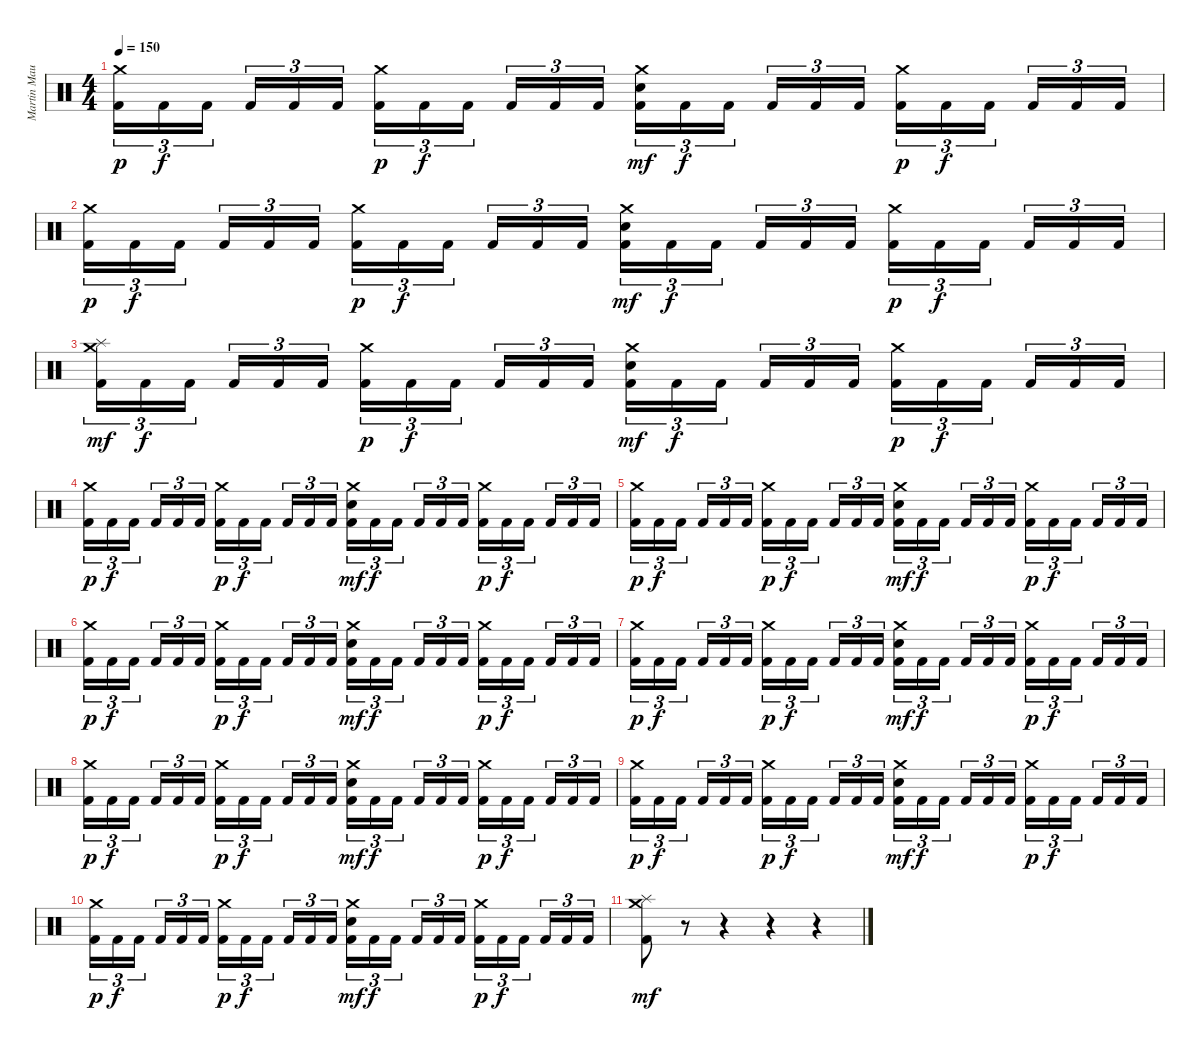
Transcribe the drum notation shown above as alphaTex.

\track ("Martin Maurais" "Martin Mau") {instrument percussion}
\staff {score}
\articulation defaults
\ts (4 4)
\tempo 150
\clef neutral
\ks c
("Crash medium (hit)" "Kick (hit) 2").16{tu (3 2) dy p} "Kick (hit) 2".16{tu (3 2) dy f} "Kick (hit) 2".16{tu (3 2) beam splitsecondary} "Kick (hit) 2".16{tu (3 2)} "Kick (hit) 2".16{tu (3 2)} "Kick (hit) 2".16{tu (3 2)} ("Crash medium (hit)" "Kick (hit) 2").16{tu (3 2) dy p} "Kick (hit) 2".16{tu (3 2) dy f} "Kick (hit) 2".16{tu (3 2) beam splitsecondary} "Kick (hit) 2".16{tu (3 2)} "Kick (hit) 2".16{tu (3 2)} "Kick (hit) 2".16{tu (3 2)} ("Crash medium (hit)" "Electric Snare (hit)" "Kick (hit) 2").16{tu (3 2) dy mf} "Kick (hit) 2".16{tu (3 2) dy f} "Kick (hit) 2".16{tu (3 2) beam splitsecondary} "Kick (hit) 2".16{tu (3 2)} "Kick (hit) 2".16{tu (3 2)} "Kick (hit) 2".16{tu (3 2)} ("Crash medium (hit)" "Kick (hit) 2").16{tu (3 2) dy p} "Kick (hit) 2".16{tu (3 2) dy f} "Kick (hit) 2".16{tu (3 2) beam splitsecondary} "Kick (hit) 2".16{tu (3 2)} "Kick (hit) 2".16{tu (3 2)} "Kick (hit) 2".16{tu (3 2)} |
("Crash medium (hit)" "Kick (hit) 2").16{tu (3 2) dy p} "Kick (hit) 2".16{tu (3 2) dy f} "Kick (hit) 2".16{tu (3 2) beam splitsecondary} "Kick (hit) 2".16{tu (3 2)} "Kick (hit) 2".16{tu (3 2)} "Kick (hit) 2".16{tu (3 2)} ("Crash medium (hit)" "Kick (hit) 2").16{tu (3 2) dy p} "Kick (hit) 2".16{tu (3 2) dy f} "Kick (hit) 2".16{tu (3 2) beam splitsecondary} "Kick (hit) 2".16{tu (3 2)} "Kick (hit) 2".16{tu (3 2)} "Kick (hit) 2".16{tu (3 2)} ("Crash medium (hit)" "Electric Snare (hit)" "Kick (hit) 2").16{tu (3 2) dy mf} "Kick (hit) 2".16{tu (3 2) dy f} "Kick (hit) 2".16{tu (3 2) beam splitsecondary} "Kick (hit) 2".16{tu (3 2)} "Kick (hit) 2".16{tu (3 2)} "Kick (hit) 2".16{tu (3 2)} ("Crash medium (hit)" "Kick (hit) 2").16{tu (3 2) dy p} "Kick (hit) 2".16{tu (3 2) dy f} "Kick (hit) 2".16{tu (3 2) beam splitsecondary} "Kick (hit) 2".16{tu (3 2)} "Kick (hit) 2".16{tu (3 2)} "Kick (hit) 2".16{tu (3 2)} |
("Crash medium (hit)" "Splash (hit)" "Kick (hit) 2").16{tu (3 2) dy mf} "Kick (hit) 2".16{tu (3 2) dy f} "Kick (hit) 2".16{tu (3 2) beam splitsecondary} "Kick (hit) 2".16{tu (3 2)} "Kick (hit) 2".16{tu (3 2)} "Kick (hit) 2".16{tu (3 2)} ("Crash medium (hit)" "Kick (hit) 2").16{tu (3 2) dy p} "Kick (hit) 2".16{tu (3 2) dy f} "Kick (hit) 2".16{tu (3 2) beam splitsecondary} "Kick (hit) 2".16{tu (3 2)} "Kick (hit) 2".16{tu (3 2)} "Kick (hit) 2".16{tu (3 2)} ("Crash medium (hit)" "Electric Snare (hit)" "Kick (hit) 2").16{tu (3 2) dy mf} "Kick (hit) 2".16{tu (3 2) dy f} "Kick (hit) 2".16{tu (3 2) beam splitsecondary} "Kick (hit) 2".16{tu (3 2)} "Kick (hit) 2".16{tu (3 2)} "Kick (hit) 2".16{tu (3 2)} ("Crash medium (hit)" "Kick (hit) 2").16{tu (3 2) dy p} "Kick (hit) 2".16{tu (3 2) dy f} "Kick (hit) 2".16{tu (3 2) beam splitsecondary} "Kick (hit) 2".16{tu (3 2)} "Kick (hit) 2".16{tu (3 2)} "Kick (hit) 2".16{tu (3 2)} |
("Crash medium (hit)" "Kick (hit) 2").16{tu (3 2) dy p} "Kick (hit) 2".16{tu (3 2) dy f} "Kick (hit) 2".16{tu (3 2) beam splitsecondary} "Kick (hit) 2".16{tu (3 2)} "Kick (hit) 2".16{tu (3 2)} "Kick (hit) 2".16{tu (3 2)} ("Crash medium (hit)" "Kick (hit) 2").16{tu (3 2) dy p} "Kick (hit) 2".16{tu (3 2) dy f} "Kick (hit) 2".16{tu (3 2) beam splitsecondary} "Kick (hit) 2".16{tu (3 2)} "Kick (hit) 2".16{tu (3 2)} "Kick (hit) 2".16{tu (3 2)} ("Crash medium (hit)" "Electric Snare (hit)" "Kick (hit) 2").16{tu (3 2) dy mf} "Kick (hit) 2".16{tu (3 2) dy f} "Kick (hit) 2".16{tu (3 2) beam splitsecondary} "Kick (hit) 2".16{tu (3 2)} "Kick (hit) 2".16{tu (3 2)} "Kick (hit) 2".16{tu (3 2)} ("Crash medium (hit)" "Kick (hit) 2").16{tu (3 2) dy p} "Kick (hit) 2".16{tu (3 2) dy f} "Kick (hit) 2".16{tu (3 2) beam splitsecondary} "Kick (hit) 2".16{tu (3 2)} "Kick (hit) 2".16{tu (3 2)} "Kick (hit) 2".16{tu (3 2)} |
("Crash medium (hit)" "Kick (hit) 2").16{tu (3 2) dy p} "Kick (hit) 2".16{tu (3 2) dy f} "Kick (hit) 2".16{tu (3 2) beam splitsecondary} "Kick (hit) 2".16{tu (3 2)} "Kick (hit) 2".16{tu (3 2)} "Kick (hit) 2".16{tu (3 2)} ("Crash medium (hit)" "Kick (hit) 2").16{tu (3 2) dy p} "Kick (hit) 2".16{tu (3 2) dy f} "Kick (hit) 2".16{tu (3 2) beam splitsecondary} "Kick (hit) 2".16{tu (3 2)} "Kick (hit) 2".16{tu (3 2)} "Kick (hit) 2".16{tu (3 2)} ("Crash medium (hit)" "Electric Snare (hit)" "Kick (hit) 2").16{tu (3 2) dy mf} "Kick (hit) 2".16{tu (3 2) dy f} "Kick (hit) 2".16{tu (3 2) beam splitsecondary} "Kick (hit) 2".16{tu (3 2)} "Kick (hit) 2".16{tu (3 2)} "Kick (hit) 2".16{tu (3 2)} ("Crash medium (hit)" "Kick (hit) 2").16{tu (3 2) dy p} "Kick (hit) 2".16{tu (3 2) dy f} "Kick (hit) 2".16{tu (3 2) beam splitsecondary} "Kick (hit) 2".16{tu (3 2)} "Kick (hit) 2".16{tu (3 2)} "Kick (hit) 2".16{tu (3 2)} |
("Crash medium (hit)" "Kick (hit) 2").16{tu (3 2) dy p} "Kick (hit) 2".16{tu (3 2) dy f} "Kick (hit) 2".16{tu (3 2) beam splitsecondary} "Kick (hit) 2".16{tu (3 2)} "Kick (hit) 2".16{tu (3 2)} "Kick (hit) 2".16{tu (3 2)} ("Crash medium (hit)" "Kick (hit) 2").16{tu (3 2) dy p} "Kick (hit) 2".16{tu (3 2) dy f} "Kick (hit) 2".16{tu (3 2) beam splitsecondary} "Kick (hit) 2".16{tu (3 2)} "Kick (hit) 2".16{tu (3 2)} "Kick (hit) 2".16{tu (3 2)} ("Crash medium (hit)" "Electric Snare (hit)" "Kick (hit) 2").16{tu (3 2) dy mf} "Kick (hit) 2".16{tu (3 2) dy f} "Kick (hit) 2".16{tu (3 2) beam splitsecondary} "Kick (hit) 2".16{tu (3 2)} "Kick (hit) 2".16{tu (3 2)} "Kick (hit) 2".16{tu (3 2)} ("Crash medium (hit)" "Kick (hit) 2").16{tu (3 2) dy p} "Kick (hit) 2".16{tu (3 2) dy f} "Kick (hit) 2".16{tu (3 2) beam splitsecondary} "Kick (hit) 2".16{tu (3 2)} "Kick (hit) 2".16{tu (3 2)} "Kick (hit) 2".16{tu (3 2)} |
("Crash medium (hit)" "Kick (hit) 2").16{tu (3 2) dy p} "Kick (hit) 2".16{tu (3 2) dy f} "Kick (hit) 2".16{tu (3 2) beam splitsecondary} "Kick (hit) 2".16{tu (3 2)} "Kick (hit) 2".16{tu (3 2)} "Kick (hit) 2".16{tu (3 2)} ("Crash medium (hit)" "Kick (hit) 2").16{tu (3 2) dy p} "Kick (hit) 2".16{tu (3 2) dy f} "Kick (hit) 2".16{tu (3 2) beam splitsecondary} "Kick (hit) 2".16{tu (3 2)} "Kick (hit) 2".16{tu (3 2)} "Kick (hit) 2".16{tu (3 2)} ("Crash medium (hit)" "Electric Snare (hit)" "Kick (hit) 2").16{tu (3 2) dy mf} "Kick (hit) 2".16{tu (3 2) dy f} "Kick (hit) 2".16{tu (3 2) beam splitsecondary} "Kick (hit) 2".16{tu (3 2)} "Kick (hit) 2".16{tu (3 2)} "Kick (hit) 2".16{tu (3 2)} ("Crash medium (hit)" "Kick (hit) 2").16{tu (3 2) dy p} "Kick (hit) 2".16{tu (3 2) dy f} "Kick (hit) 2".16{tu (3 2) beam splitsecondary} "Kick (hit) 2".16{tu (3 2)} "Kick (hit) 2".16{tu (3 2)} "Kick (hit) 2".16{tu (3 2)} |
("Crash medium (hit)" "Kick (hit) 2").16{tu (3 2) dy p} "Kick (hit) 2".16{tu (3 2) dy f} "Kick (hit) 2".16{tu (3 2) beam splitsecondary} "Kick (hit) 2".16{tu (3 2)} "Kick (hit) 2".16{tu (3 2)} "Kick (hit) 2".16{tu (3 2)} ("Crash medium (hit)" "Kick (hit) 2").16{tu (3 2) dy p} "Kick (hit) 2".16{tu (3 2) dy f} "Kick (hit) 2".16{tu (3 2) beam splitsecondary} "Kick (hit) 2".16{tu (3 2)} "Kick (hit) 2".16{tu (3 2)} "Kick (hit) 2".16{tu (3 2)} ("Crash medium (hit)" "Electric Snare (hit)" "Kick (hit) 2").16{tu (3 2) dy mf} "Kick (hit) 2".16{tu (3 2) dy f} "Kick (hit) 2".16{tu (3 2) beam splitsecondary} "Kick (hit) 2".16{tu (3 2)} "Kick (hit) 2".16{tu (3 2)} "Kick (hit) 2".16{tu (3 2)} ("Crash medium (hit)" "Kick (hit) 2").16{tu (3 2) dy p} "Kick (hit) 2".16{tu (3 2) dy f} "Kick (hit) 2".16{tu (3 2) beam splitsecondary} "Kick (hit) 2".16{tu (3 2)} "Kick (hit) 2".16{tu (3 2)} "Kick (hit) 2".16{tu (3 2)} |
("Crash medium (hit)" "Kick (hit) 2").16{tu (3 2) dy p} "Kick (hit) 2".16{tu (3 2) dy f} "Kick (hit) 2".16{tu (3 2) beam splitsecondary} "Kick (hit) 2".16{tu (3 2)} "Kick (hit) 2".16{tu (3 2)} "Kick (hit) 2".16{tu (3 2)} ("Crash medium (hit)" "Kick (hit) 2").16{tu (3 2) dy p} "Kick (hit) 2".16{tu (3 2) dy f} "Kick (hit) 2".16{tu (3 2) beam splitsecondary} "Kick (hit) 2".16{tu (3 2)} "Kick (hit) 2".16{tu (3 2)} "Kick (hit) 2".16{tu (3 2)} ("Crash medium (hit)" "Electric Snare (hit)" "Kick (hit) 2").16{tu (3 2) dy mf} "Kick (hit) 2".16{tu (3 2) dy f} "Kick (hit) 2".16{tu (3 2) beam splitsecondary} "Kick (hit) 2".16{tu (3 2)} "Kick (hit) 2".16{tu (3 2)} "Kick (hit) 2".16{tu (3 2)} ("Crash medium (hit)" "Kick (hit) 2").16{tu (3 2) dy p} "Kick (hit) 2".16{tu (3 2) dy f} "Kick (hit) 2".16{tu (3 2) beam splitsecondary} "Kick (hit) 2".16{tu (3 2)} "Kick (hit) 2".16{tu (3 2)} "Kick (hit) 2".16{tu (3 2)} |
("Crash medium (hit)" "Kick (hit) 2").16{tu (3 2) dy p} "Kick (hit) 2".16{tu (3 2) dy f} "Kick (hit) 2".16{tu (3 2) beam splitsecondary} "Kick (hit) 2".16{tu (3 2)} "Kick (hit) 2".16{tu (3 2)} "Kick (hit) 2".16{tu (3 2)} ("Crash medium (hit)" "Kick (hit) 2").16{tu (3 2) dy p} "Kick (hit) 2".16{tu (3 2) dy f} "Kick (hit) 2".16{tu (3 2) beam splitsecondary} "Kick (hit) 2".16{tu (3 2)} "Kick (hit) 2".16{tu (3 2)} "Kick (hit) 2".16{tu (3 2)} ("Crash medium (hit)" "Electric Snare (hit)" "Kick (hit) 2").16{tu (3 2) dy mf} "Kick (hit) 2".16{tu (3 2) dy f} "Kick (hit) 2".16{tu (3 2) beam splitsecondary} "Kick (hit) 2".16{tu (3 2)} "Kick (hit) 2".16{tu (3 2)} "Kick (hit) 2".16{tu (3 2)} ("Crash medium (hit)" "Kick (hit) 2").16{tu (3 2) dy p} "Kick (hit) 2".16{tu (3 2) dy f} "Kick (hit) 2".16{tu (3 2) beam splitsecondary} "Kick (hit) 2".16{tu (3 2)} "Kick (hit) 2".16{tu (3 2)} "Kick (hit) 2".16{tu (3 2)} |
("Crash medium (hit)" "Splash (hit)" "Kick (hit) 2").8{dy mf} r.8 r.4 r.4 r.4
